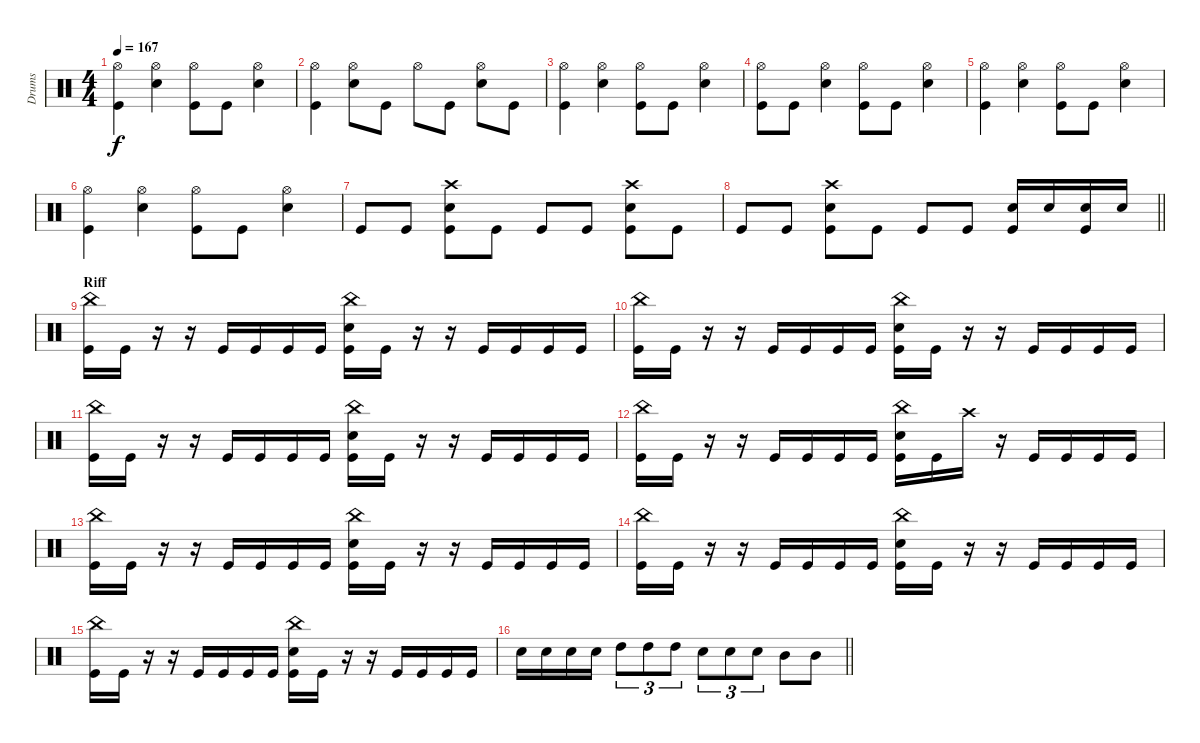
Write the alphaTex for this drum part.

\track ("Drums" "Drums") {instrument percussion}
\staff {score}
\articulation defaults
\ts (4 4)
\tempo 167
\clef neutral
\ks c
("Hi-Hat (open)" "Kick (hit)").4{dy f} ("Hi-Hat (open)" "Snare (hit) 2").4 ("Hi-Hat (open)" "Kick (hit)").8 "Kick (hit)".8 ("Hi-Hat (open)" "Snare (hit) 2").4 |
("Hi-Hat (open)" "Kick (hit)").4 ("Hi-Hat (open)" "Snare (hit) 2").8 "Kick (hit)".8 "Hi-Hat (open)".8 "Kick (hit)".8 ("Hi-Hat (open)" "Snare (hit) 2").8 "Kick (hit)".8 |
("Hi-Hat (open)" "Kick (hit)").4 ("Hi-Hat (open)" "Snare (hit) 2").4 ("Hi-Hat (open)" "Kick (hit)").8 "Kick (hit)".8 ("Hi-Hat (open)" "Snare (hit) 2").4 |
("Hi-Hat (open)" "Kick (hit)").8 "Kick (hit)".8 ("Hi-Hat (open)" "Snare (hit) 2").4 ("Hi-Hat (open)" "Kick (hit)").8 "Kick (hit)".8 ("Hi-Hat (open)" "Snare (hit) 2").4 |
("Hi-Hat (open)" "Kick (hit)").4 ("Hi-Hat (open)" "Snare (hit) 2").4 ("Hi-Hat (open)" "Kick (hit)").8 "Kick (hit)".8 ("Hi-Hat (open)" "Snare (hit) 2").4 |
("Hi-Hat (open)" "Kick (hit)").4 ("Hi-Hat (open)" "Snare (hit) 2").4 ("Hi-Hat (open)" "Kick (hit)").8 "Kick (hit)".8 ("Hi-Hat (open)" "Snare (hit) 2").4 |
"Kick (hit)".8 "Kick (hit)".8 ("Crash high (hit)" "Snare (hit) 2" "Kick (hit)").8 "Kick (hit)".8 "Kick (hit)".8 "Kick (hit)".8 ("Crash high (hit)" "Snare (hit) 2" "Kick (hit)").8 "Kick (hit)".8 |
\barLineRight lightlight "Kick (hit)".8 "Kick (hit)".8
("Crash high (hit)" "Snare (hit) 2" "Kick (hit)").8 "Kick (hit)".8 "Kick (hit)".8 "Kick (hit)".8 ("Snare (hit) 2" "Kick (hit)").16 "Snare (hit) 2".16 ("Snare (hit) 2" "Kick (hit)").16 "Snare (hit) 2".16 |
\section ("" "Riff")
("China (hit)" "Kick (hit)").16 "Kick (hit)".16 r.16 r.16 "Kick (hit)".16 "Kick (hit)".16 "Kick (hit)".16 "Kick (hit)".16 ("China (hit)" "Snare (hit) 2" "Kick (hit)").16 "Kick (hit)".16 r.16 r.16 "Kick (hit)".16 "Kick (hit)".16 "Kick (hit)".16 "Kick (hit)".16 |
("China (hit)" "Kick (hit)").16 "Kick (hit)".16 r.16 r.16 "Kick (hit)".16 "Kick (hit)".16 "Kick (hit)".16 "Kick (hit)".16 ("China (hit)" "Snare (hit) 2" "Kick (hit)").16 "Kick (hit)".16 r.16 r.16 "Kick (hit)".16 "Kick (hit)".16 "Kick (hit)".16 "Kick (hit)".16 |
("China (hit)" "Kick (hit)").16 "Kick (hit)".16 r.16 r.16 "Kick (hit)".16 "Kick (hit)".16 "Kick (hit)".16 "Kick (hit)".16 ("China (hit)" "Snare (hit) 2" "Kick (hit)").16 "Kick (hit)".16 r.16 r.16 "Kick (hit)".16 "Kick (hit)".16 "Kick (hit)".16 "Kick (hit)".16 |
("China (hit)" "Kick (hit)").16 "Kick (hit)".16 r.16 r.16 "Kick (hit)".16 "Kick (hit)".16 "Kick (hit)".16 "Kick (hit)".16 ("China (hit)" "Snare (hit) 2" "Kick (hit)").16 "Kick (hit)".16 "Crash high (hit)".16 r.16 "Kick (hit)".16 "Kick (hit)".16 "Kick (hit)".16 "Kick (hit)".16 |
("China (hit)" "Kick (hit)").16 "Kick (hit)".16 r.16 r.16 "Kick (hit)".16 "Kick (hit)".16 "Kick (hit)".16 "Kick (hit)".16 ("China (hit)" "Snare (hit) 2" "Kick (hit)").16 "Kick (hit)".16 r.16 r.16 "Kick (hit)".16 "Kick (hit)".16 "Kick (hit)".16 "Kick (hit)".16 |
("China (hit)" "Kick (hit)").16 "Kick (hit)".16 r.16 r.16 "Kick (hit)".16 "Kick (hit)".16 "Kick (hit)".16 "Kick (hit)".16 ("China (hit)" "Snare (hit) 2" "Kick (hit)").16 "Kick (hit)".16 r.16 r.16 "Kick (hit)".16 "Kick (hit)".16 "Kick (hit)".16 "Kick (hit)".16 |
("China (hit)" "Kick (hit)").16 "Kick (hit)".16 r.16 r.16 "Kick (hit)".16 "Kick (hit)".16 "Kick (hit)".16 "Kick (hit)".16 ("China (hit)" "Snare (hit) 2" "Kick (hit)").16 "Kick (hit)".16 r.16 r.16 "Kick (hit)".16 "Kick (hit)".16 "Kick (hit)".16 "Kick (hit)".16 |
\barLineRight lightlight "Snare (hit) 2".16 "Snare (hit) 2".16 "Snare (hit) 2".16 "Snare (hit) 2".16 "High Tom (hit)".8{tu (3 2)} "High Tom (hit)".8{tu (3 2)} "High Tom (hit)".8{tu (3 2)} "Snare (hit) 2".8{tu (3 2)} "Snare (hit) 2".8{tu (3 2)} "Snare (hit) 2".8{tu (3 2)} "Mid Tom (hit)".8 "Mid Tom (hit)".8
